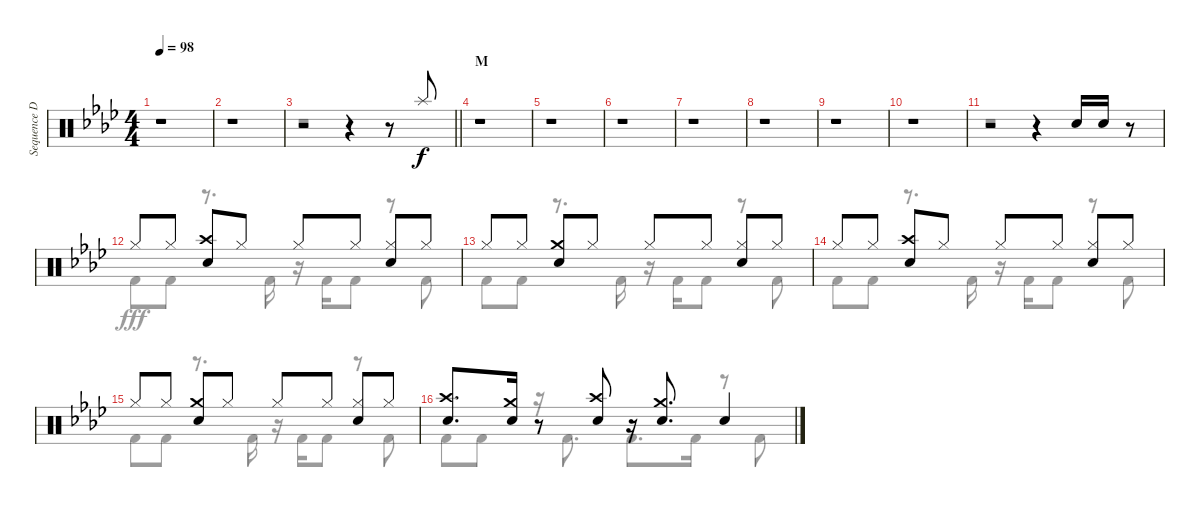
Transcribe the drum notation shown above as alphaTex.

\track ("Sequence Drums I" "Sequence D") {instrument percussion}
\staff {score}
\articulation defaults
\voice
\ts (4 4)
\tempo 98
\clef neutral
\ks ab
r.1{dy f} |
r.1 |
\barLineRight lightlight
r.2 r.4 r.8 "Splash (hit)".8 |
\section ("" "M")
r.1 |
r.1 |
r.1 |
r.1 |
r.1 |
r.1 |
r.1 |
r.2 r.4 "Electric Snare (hit)".16 "Electric Snare (hit)".16 r.8 |
"Hi-Hat (closed)".8 "Hi-Hat (closed)".8 ("Crash high (hit)" "Electric Snare (hit)").8 "Hi-Hat (closed)".8 "Hi-Hat (closed)".8 "Hi-Hat (closed)".8 ("Hi-Hat (closed)" "Electric Snare (hit)").8 "Hi-Hat (closed)".8 |
"Hi-Hat (closed)".8 "Hi-Hat (closed)".8 ("Crash medium (hit)" "Electric Snare (hit)").8 "Hi-Hat (closed)".8 "Hi-Hat (closed)".8 "Hi-Hat (closed)".8 ("Hi-Hat (closed)" "Electric Snare (hit)").8 "Hi-Hat (closed)".8 |
"Hi-Hat (closed)".8 "Hi-Hat (closed)".8 ("Crash high (hit)" "Electric Snare (hit)").8 "Hi-Hat (closed)".8 "Hi-Hat (closed)".8 "Hi-Hat (closed)".8 ("Hi-Hat (closed)" "Electric Snare (hit)").8 "Hi-Hat (closed)".8 |
"Hi-Hat (closed)".8 "Hi-Hat (closed)".8 ("Crash medium (hit)" "Electric Snare (hit)").8 "Hi-Hat (closed)".8 "Hi-Hat (closed)".8 "Hi-Hat (closed)".8 ("Hi-Hat (closed)" "Electric Snare (hit)").8 "Hi-Hat (closed)".8 |
("Crash high (hit)" "Electric Snare (hit)").8{d} ("Crash medium (hit)" "Electric Snare (hit)").16 r.8 ("Crash high (hit)" "Electric Snare (hit)").8 r.16 ("Crash medium (hit)" "Electric Snare (hit)").8{d} "Electric Snare (hit)".4
\voice
\clef neutral
\ottava regular
\simile none
\ks ab
r.1{dy fff} |
r.1 |
\barLineRight lightlight
r.1 |
r.1 |
r.1 |
r.1 |
r.1 |
r.1 |
r.1 |
r.1 |
r.1 |
"Kick (hit) 2".8 "Kick (hit) 2".8 r.8{d} "Kick (hit) 2".16 r.16 "Kick (hit) 2".16 "Kick (hit) 2".8 r.8 "Kick (hit) 2".8 |
"Kick (hit) 2".8 "Kick (hit) 2".8 r.8{d} "Kick (hit) 2".16 r.16 "Kick (hit) 2".16 "Kick (hit) 2".8 r.8 "Kick (hit) 2".8 |
"Kick (hit) 2".8 "Kick (hit) 2".8 r.8{d} "Kick (hit) 2".16 r.16 "Kick (hit) 2".16 "Kick (hit) 2".8 r.8 "Kick (hit) 2".8 |
"Kick (hit) 2".8 "Kick (hit) 2".8 r.8{d} "Kick (hit) 2".16 r.16 "Kick (hit) 2".16 "Kick (hit) 2".8 r.8 "Kick (hit) 2".8 |
"Kick (hit) 2".8 "Kick (hit) 2".8 r.16 "Kick (hit) 2".8{d} "Kick (hit) 2".8{d} "Kick (hit) 2".16 r.8 "Kick (hit) 2".8
